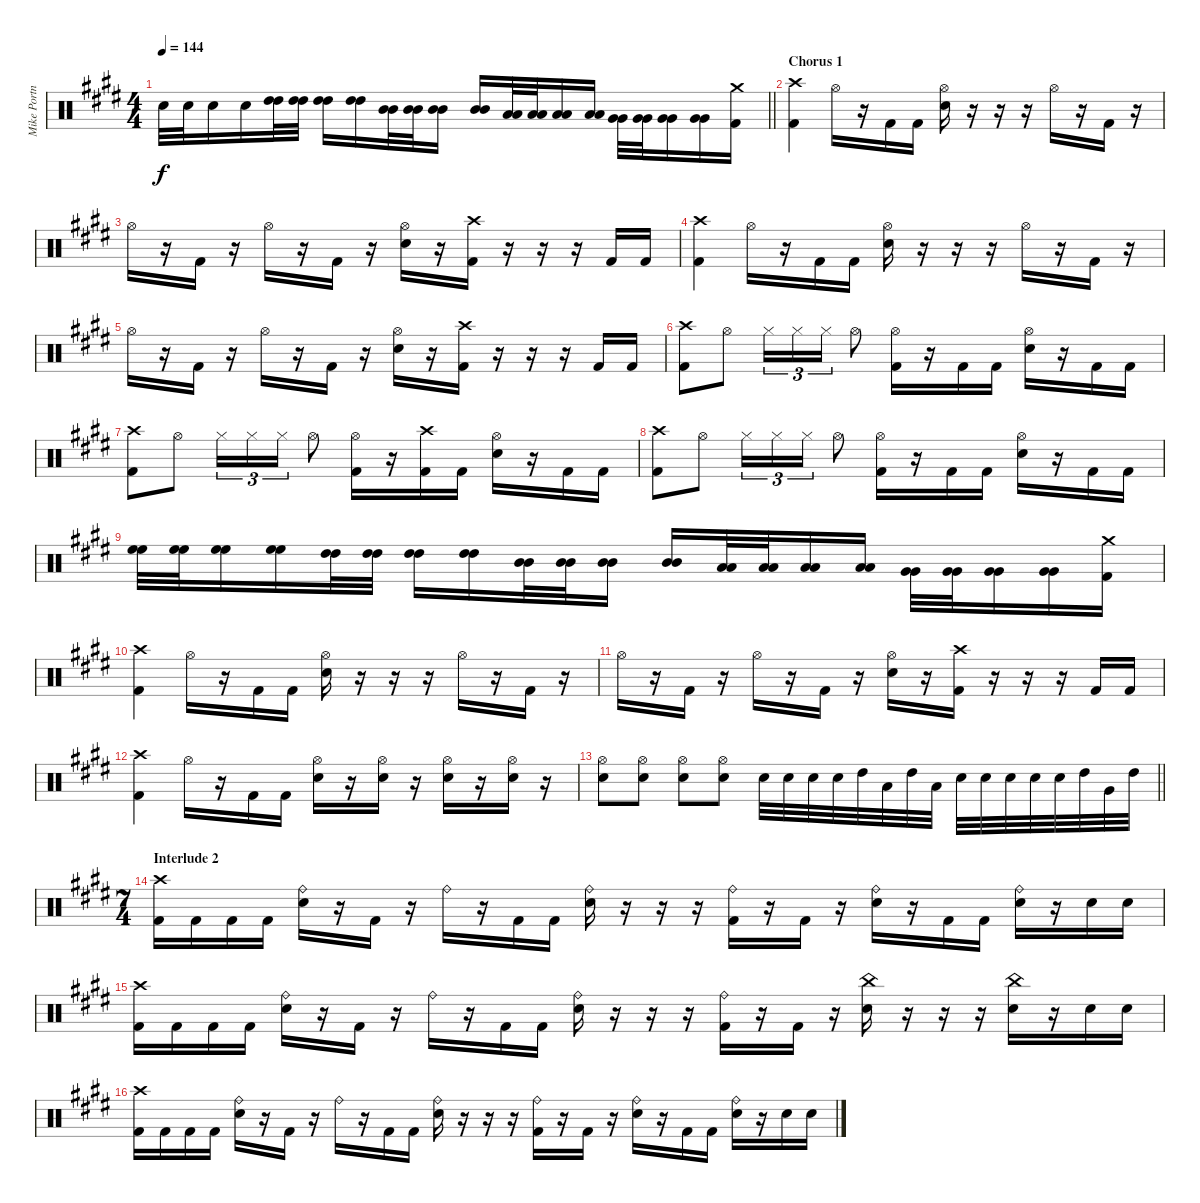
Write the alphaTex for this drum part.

\track ("Mike Portnoy" "Mike Portn") {instrument percussion}
\staff {score}
\articulation defaults
\ts (4 4)
\tempo 144
\clef neutral
\barLineRight lightlight
\ks e "Snare (hit) 2".32{dy f} "Snare (hit) 2".32 "Snare (hit) 2".16 "Snare (hit) 2".16
("High Tom (hit)" "High Tom (hit)").32 ("High Tom (hit)" "High Tom (hit)").32 ("High Tom (hit)" "High Tom (hit)").16 ("High Tom (hit)" "High Tom (hit)").16 ("Mid Tom (hit)" "Mid Tom (hit)").32 ("Mid Tom (hit)" "Mid Tom (hit)").32 ("Mid Tom (hit)" "Mid Tom (hit)").16 ("Mid Tom (hit)" "Mid Tom (hit)").16 ("Low Tom (hit)" "Low Tom (hit)").32 ("Low Tom (hit)" "Low Tom (hit)").32 ("Low Tom (hit)" "Low Tom (hit)").16 ("Low Tom (hit)" "Low Tom (hit)").16 ("Very Low Tom (hit)" "Very Low Tom (hit)").32 ("Very Low Tom (hit)" "Very Low Tom (hit)").32 ("Very Low Tom (hit)" "Very Low Tom (hit)").16 ("Very Low Tom (hit)" "Very Low Tom (hit)").16 ("Crash medium (hit)" "Kick (hit) 2").16 |
\section ("" "Chorus 1")
("Kick (hit) 2" "Crash high (hit)").4 "Hi-Hat (open)".16 r.16 "Kick (hit) 2".16 "Kick (hit) 2".16 ("Snare (hit) 2" "Hi-Hat (open)").16 r.16 r.16 r.16 "Hi-Hat (open)".16 r.16 "Kick (hit) 2".16 r.16 |
"Hi-Hat (open)".16 r.16 "Kick (hit) 2".16 r.16 "Hi-Hat (open)".16 r.16 "Kick (hit) 2".16 r.16 ("Snare (hit) 2" "Hi-Hat (open)").16 r.16 ("Crash high (hit)" "Kick (hit) 2").16 r.16 r.16 r.16 "Kick (hit) 2".16 "Kick (hit) 2".16 |
("Kick (hit) 2" "Crash high (hit)").4 "Hi-Hat (open)".16 r.16 "Kick (hit) 2".16 "Kick (hit) 2".16 ("Snare (hit) 2" "Hi-Hat (open)").16 r.16 r.16 r.16 "Hi-Hat (open)".16 r.16 "Kick (hit) 2".16 r.16 |
"Hi-Hat (open)".16 r.16 "Kick (hit) 2".16 r.16 "Hi-Hat (open)".16 r.16 "Kick (hit) 2".16 r.16 ("Snare (hit) 2" "Hi-Hat (open)").16 r.16 ("Crash high (hit)" "Kick (hit) 2").16 r.16 r.16 r.16 "Kick (hit) 2".16 "Kick (hit) 2".16 |
("Crash high (hit)" "Kick (hit) 2").8 "Hi-Hat (open)".8 "Hi-Hat (closed)".16{tu (3 2)} "Hi-Hat (closed)".16{tu (3 2)} "Hi-Hat (closed)".16{tu (3 2)} "Hi-Hat (open)".8 ("Kick (hit) 2" "Hi-Hat (open)").16 r.16 "Kick (hit) 2".16 "Kick (hit) 2".16 ("Snare (hit) 2" "Hi-Hat (open)").16 r.16 "Kick (hit) 2".16 "Kick (hit) 2".16 |
("Crash high (hit)" "Kick (hit) 2").8 "Hi-Hat (open)".8 "Hi-Hat (closed)".16{tu (3 2)} "Hi-Hat (closed)".16{tu (3 2)} "Hi-Hat (closed)".16{tu (3 2)} "Hi-Hat (open)".8 ("Kick (hit) 2" "Hi-Hat (open)").16 r.16 ("Crash high (hit)" "Kick (hit) 2").16 "Kick (hit) 2".16 ("Snare (hit) 2" "Hi-Hat (open)").16 r.16 "Kick (hit) 2".16 "Kick (hit) 2".16 |
("Crash high (hit)" "Kick (hit) 2").8 "Hi-Hat (open)".8 "Hi-Hat (closed)".16{tu (3 2)} "Hi-Hat (closed)".16{tu (3 2)} "Hi-Hat (closed)".16{tu (3 2)} "Hi-Hat (open)".8 ("Kick (hit) 2" "Hi-Hat (open)").16 r.16 "Kick (hit) 2".16 "Kick (hit) 2".16 ("Snare (hit) 2" "Hi-Hat (open)").16 r.16 "Kick (hit) 2".16 "Kick (hit) 2".16 |
("High Floor Tom (hit)" "High Floor Tom (hit)").32 ("High Floor Tom (hit)" "High Floor Tom (hit)").32 ("High Floor Tom (hit)" "High Floor Tom (hit)").16 ("High Floor Tom (hit)" "High Floor Tom (hit)").16 ("High Tom (hit)" "High Tom (hit)").32 ("High Tom (hit)" "High Tom (hit)").32 ("High Tom (hit)" "High Tom (hit)").16 ("High Tom (hit)" "High Tom (hit)").16 ("Mid Tom (hit)" "Mid Tom (hit)").32 ("Mid Tom (hit)" "Mid Tom (hit)").32 ("Mid Tom (hit)" "Mid Tom (hit)").16 ("Mid Tom (hit)" "Mid Tom (hit)").16 ("Low Tom (hit)" "Low Tom (hit)").32 ("Low Tom (hit)" "Low Tom (hit)").32 ("Low Tom (hit)" "Low Tom (hit)").16 ("Low Tom (hit)" "Low Tom (hit)").16 ("Very Low Tom (hit)" "Very Low Tom (hit)").32 ("Very Low Tom (hit)" "Very Low Tom (hit)").32 ("Very Low Tom (hit)" "Very Low Tom (hit)").16 ("Very Low Tom (hit)" "Very Low Tom (hit)").16 ("Crash medium (hit)" "Kick (hit) 2").16 |
("Kick (hit) 2" "Crash high (hit)").4 "Hi-Hat (open)".16 r.16 "Kick (hit) 2".16 "Kick (hit) 2".16 ("Snare (hit) 2" "Hi-Hat (open)").16 r.16 r.16 r.16 "Hi-Hat (open)".16 r.16 "Kick (hit) 2".16 r.16 |
"Hi-Hat (open)".16 r.16 "Kick (hit) 2".16 r.16 "Hi-Hat (open)".16 r.16 "Kick (hit) 2".16 r.16 ("Snare (hit) 2" "Hi-Hat (open)").16 r.16 ("Crash high (hit)" "Kick (hit) 2").16 r.16 r.16 r.16 "Kick (hit) 2".16 "Kick (hit) 2".16 |
("Kick (hit) 2" "Crash high (hit)").4 "Hi-Hat (open)".16 r.16 "Kick (hit) 2".16 "Kick (hit) 2".16 ("Snare (hit) 2" "Hi-Hat (open)").16 r.16 ("Snare (hit) 2" "Hi-Hat (open)").16 r.16 ("Snare (hit) 2" "Hi-Hat (open)").16 r.16 ("Snare (hit) 2" "Hi-Hat (open)").16 r.16 |
\barLineRight lightlight
("Hi-Hat (open)" "Snare (hit) 2").8 ("Hi-Hat (open)" "Snare (hit) 2").8 ("Hi-Hat (open)" "Snare (hit) 2").8 ("Hi-Hat (open)" "Snare (hit) 2").8 "Snare (hit) 2".32 "Snare (hit) 2".32 "Snare (hit) 2".32 "Snare (hit) 2".32 "High Tom (hit)".32 "Low Tom (hit)".32 "High Tom (hit)".32 "Low Tom (hit)".32 "Snare (hit) 2".32 "Snare (hit) 2".32 "Snare (hit) 2".32 "Snare (hit) 2".32 "Snare (hit) 2".32 "High Tom (hit)".32 "Very Low Tom (hit)".32 "High Tom (hit)".32 |
\ts (7 4)
\section ("" "Interlude 2")
("Crash high (hit)" "Kick (hit) 2").16 "Kick (hit) 2".16 "Kick (hit) 2".16 "Kick (hit) 2".16 ("Ride (bell)" "Snare (hit) 2").16 r.16 "Kick (hit) 2".16 r.16 "Ride (bell)".16 r.16 "Kick (hit) 2".16 "Kick (hit) 2".16 ("Ride (bell)" "Snare (hit) 2").16 r.16 r.16 r.16 ("Ride (bell)" "Kick (hit) 2").16 r.16 "Kick (hit) 2".16 r.16 ("Ride (bell)" "Snare (hit) 2").16 r.16 "Kick (hit) 2".16 "Kick (hit) 2".16 ("Ride (bell)" "Snare (hit) 2").16 r.16 "Snare (hit) 2".16 "Snare (hit) 2".16 |
("Crash high (hit)" "Kick (hit) 2").16 "Kick (hit) 2".16 "Kick (hit) 2".16 "Kick (hit) 2".16 ("Ride (bell)" "Snare (hit) 2").16 r.16 "Kick (hit) 2".16 r.16 "Ride (bell)".16 r.16 "Kick (hit) 2".16 "Kick (hit) 2".16 ("Ride (bell)" "Snare (hit) 2").16 r.16 r.16 r.16 ("Ride (bell)" "Kick (hit) 2").16 r.16 "Kick (hit) 2".16 r.16 ("China (hit)" "Snare (hit) 2").16 r.16 r.16 r.16 ("China (hit)" "Snare (hit) 2").16 r.16 "Snare (hit) 2".16 "Snare (hit) 2".16 |
("Crash high (hit)" "Kick (hit) 2").16 "Kick (hit) 2".16 "Kick (hit) 2".16 "Kick (hit) 2".16 ("Ride (bell)" "Snare (hit) 2").16 r.16 "Kick (hit) 2".16 r.16 "Ride (bell)".16 r.16 "Kick (hit) 2".16 "Kick (hit) 2".16 ("Ride (bell)" "Snare (hit) 2").16 r.16 r.16 r.16 ("Ride (bell)" "Kick (hit) 2").16 r.16 "Kick (hit) 2".16 r.16 ("Ride (bell)" "Snare (hit) 2").16 r.16 "Kick (hit) 2".16 "Kick (hit) 2".16 ("Ride (bell)" "Snare (hit) 2").16 r.16 "Snare (hit) 2".16 "Snare (hit) 2".16
